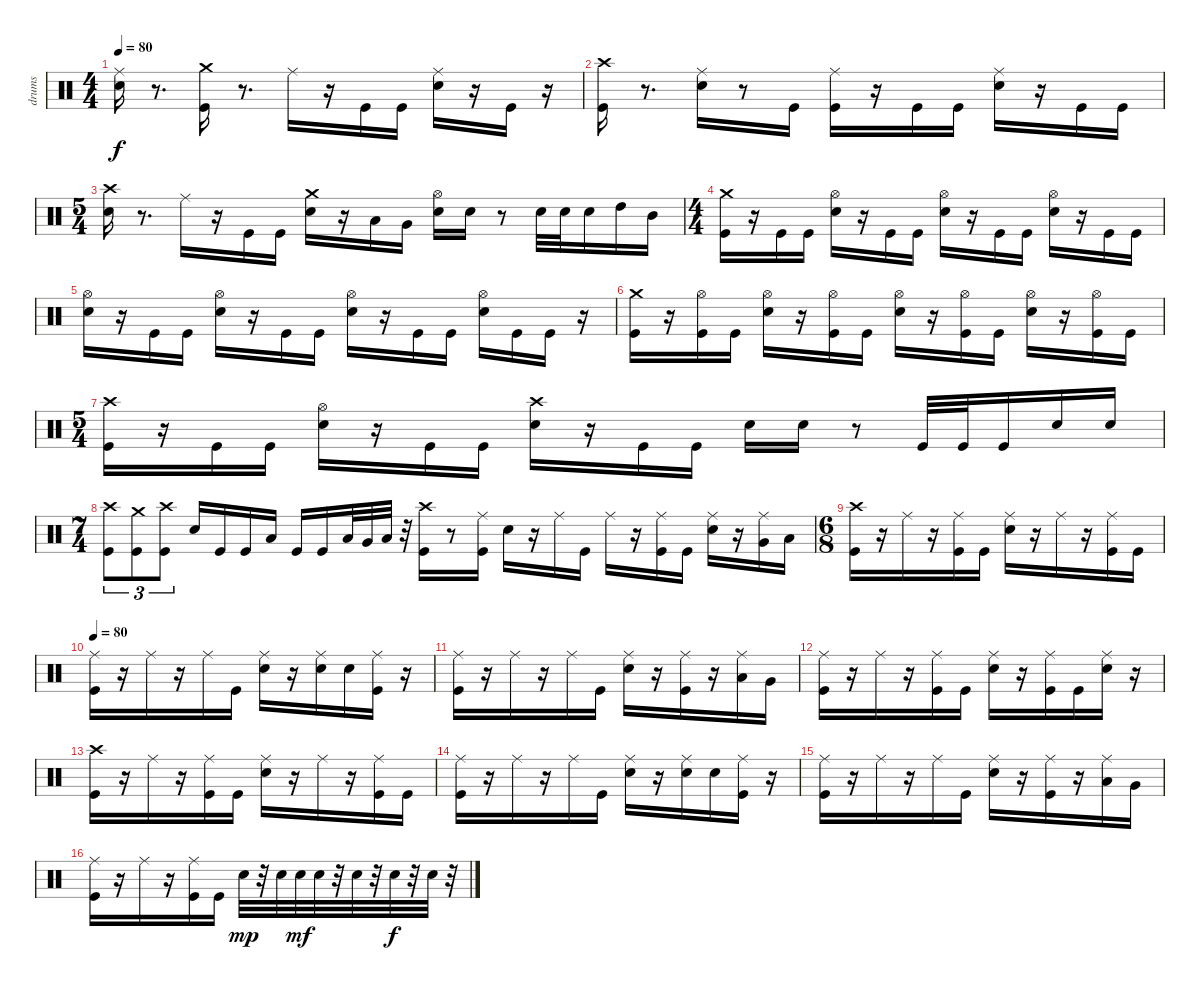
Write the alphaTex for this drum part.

\track ("drums" "drums") {instrument percussion}
\staff {score}
\articulation defaults
\ts (4 4)
\tempo 80
\clef neutral
\ks c
("Electric Snare (hit)" "Ride (middle)").16{dy f} r.8{d} ("Crash medium (hit)" "Kick (hit)").16 r.8{d} "Ride (middle)".16 r.16 "Kick (hit)".16 "Kick (hit)".16 ("Ride (middle)" "Electric Snare (hit)").16 r.16 "Kick (hit)".16 r.16 |
("Crash high (hit)" "Kick (hit)").16 r.8{d} ("Electric Snare (hit)" "Ride (middle)").16 r.8 "Kick (hit)".16 ("Kick (hit)" "Ride (middle)").16 r.16 "Kick (hit)".16 "Kick (hit)".16 ("Ride (middle)" "Electric Snare (hit)").16 r.16 "Kick (hit)".16 "Kick (hit)".16 |
\ts (5 4)
("Crash high (hit)" "Electric Snare (hit)").16 r.8{d} "Ride (middle)".16 r.16 "Kick (hit)".16 "Kick (hit)".16 ("Crash medium (hit)" "Electric Snare (hit)").16 r.16 "Low Tom (hit)".16 "Very Low Tom (hit)".16 ("Hi-Hat (open)" "Electric Snare (hit)").16 "Electric Snare (hit)".16 r.8 "Electric Snare (hit)".32 "Electric Snare (hit)".32 "Electric Snare (hit)".16 "High Tom (hit)".16 "Mid Tom (hit)".16 |
\ts (4 4)
("Crash medium (hit)" "Kick (hit)").16 r.16 "Kick (hit)".16 "Kick (hit)".16 ("Hi-Hat (open)" "Electric Snare (hit)").16 r.16 "Kick (hit)".16 "Kick (hit)".16 ("Hi-Hat (open)" "Snare (hit) 2").16 r.16 "Kick (hit)".16 "Kick (hit)".16 ("Hi-Hat (open)" "Snare (hit) 2").16 r.16 "Kick (hit)".16 "Kick (hit)".16 |
("Electric Snare (hit)" "Hi-Hat (open)").16 r.16 "Kick (hit)".16 "Kick (hit)".16 ("Hi-Hat (open)" "Electric Snare (hit)").16 r.16 "Kick (hit)".16 "Kick (hit)".16 ("Hi-Hat (open)" "Electric Snare (hit)").16 r.16 "Kick (hit)".16 "Kick (hit)".16 ("Hi-Hat (open)" "Electric Snare (hit)").16 "Kick (hit)".16 "Kick (hit)".16 r.16 |
("Kick (hit)" "Crash medium (hit)").16 r.16 ("Hi-Hat (open)" "Kick (hit)").16 "Kick (hit)".16 ("Hi-Hat (open)" "Electric Snare (hit)").16 r.16 ("Hi-Hat (open)" "Kick (hit)").16 "Kick (hit)".16 ("Hi-Hat (open)" "Electric Snare (hit)").16 r.16 ("Hi-Hat (open)" "Kick (hit)").16 "Kick (hit)".16 ("Hi-Hat (open)" "Electric Snare (hit)").16 r.16 ("Kick (hit)" "Hi-Hat (open)").16 "Kick (hit)".16 |
\ts (5 4)
("Crash high (hit)" "Kick (hit)").16 r.16 "Kick (hit)".16 "Kick (hit)".16 ("Hi-Hat (open)" "Snare (hit) 2").16 r.16 "Kick (hit)".16 "Kick (hit)".16 ("Snare (hit) 2" "Crash high (hit)").16 r.16 "Kick (hit)".16 "Kick (hit)".16 "Electric Snare (hit)".16 "Electric Snare (hit)".16 r.8 "Kick (hit)".32 "Kick (hit)".32 "Kick (hit)".16 "Electric Snare (hit)".16 "Electric Snare (hit)".16 |
\ts (7 4)
("Crash high (hit)" "Kick (hit)").8{tu (3 2)} ("Crash medium (hit)" "Kick (hit)").8{tu (3 2)} ("Crash high (hit)" "Kick (hit)").8{tu (3 2)} "Electric Snare (hit)".16 "Kick (hit)".16 "Kick (hit)".16 "Low Tom (hit)".16 "Kick (hit)".16 "Kick (hit)".16 "Low Tom (hit)".32 "Very Low Tom (hit)".32 "Low Floor Tom (hit)".32 r.32 ("Crash high (hit)" "Kick (hit)").16 r.8 ("Ride (middle)" "Kick (hit)").16 "Electric Snare (hit)".16 r.16 "Ride (middle)".16 "Kick (hit)".16 "Ride (middle)".16 r.16 ("Ride (middle)" "Kick (hit)").16 "Kick (hit)".16 ("Ride (middle)" "Electric Snare (hit)").16 r.16 ("Very Low Tom (hit)" "Ride (middle)").16 "Low Floor Tom (hit)".16 |
\ts (6 8)
("Kick (hit)" "Crash high (hit)").16 r.16 "Ride (middle)".16 r.16 ("Kick (hit)" "Ride (middle)").16 "Kick (hit)".16 ("Electric Snare (hit)" "Ride (middle)").16 r.16 "Ride (middle)".16 r.16 ("Kick (hit)" "Ride (middle)").16 "Kick (hit)".16 |
\tempo 80
("Ride (middle)" "Kick (hit)").16 r.16 "Ride (middle)".16 r.16 "Ride (middle)".16 "Kick (hit)".16 ("Ride (middle)" "Electric Snare (hit)").16 r.16 ("Electric Snare (hit)" "Ride (middle)").16 "Electric Snare (hit)".16 ("Kick (hit)" "Ride (middle)").16 r.16 |
("Ride (middle)" "Kick (hit)").16 r.16 "Ride (middle)".16 r.16 "Ride (middle)".16 "Kick (hit)".16 ("Electric Snare (hit)" "Ride (middle)").16 r.16 ("Kick (hit)" "Ride (middle)").16 r.16 ("Low Tom (hit)" "Ride (middle)").16 "Very Low Tom (hit)".16 |
("Ride (middle)" "Kick (hit)").16 r.16 "Ride (middle)".16 r.16 ("Kick (hit)" "Ride (middle)").16 "Kick (hit)".16 ("Ride (middle)" "Electric Snare (hit)").16 r.16 ("Ride (middle)" "Kick (hit)").16 "Kick (hit)".16 ("Ride (middle)" "Electric Snare (hit)").16 r.16 |
("Kick (hit)" "Crash high (hit)").16 r.16 "Ride (middle)".16 r.16 ("Kick (hit)" "Ride (middle)").16 "Kick (hit)".16 ("Electric Snare (hit)" "Ride (middle)").16 r.16 "Ride (middle)".16 r.16 ("Kick (hit)" "Ride (middle)").16 "Kick (hit)".16 |
("Ride (middle)" "Kick (hit)").16 r.16 "Ride (middle)".16 r.16 "Ride (middle)".16 "Kick (hit)".16 ("Ride (middle)" "Electric Snare (hit)").16 r.16 ("Ride (middle)" "Electric Snare (hit)").16 "Electric Snare (hit)".16 ("Kick (hit)" "Ride (middle)").16 r.16 |
("Ride (middle)" "Kick (hit)").16 r.16 "Ride (middle)".16 r.16 "Ride (middle)".16 "Kick (hit)".16 ("Electric Snare (hit)" "Ride (middle)").16 r.16 ("Kick (hit)" "Ride (middle)").16 r.16 ("Low Tom (hit)" "Ride (middle)").16 "Very Low Tom (hit)".16 |
("Ride (middle)" "Kick (hit)").16 r.16 "Ride (middle)".16 r.16 ("Ride (middle)" "Kick (hit)").16 "Kick (hit)".16 "Electric Snare (hit)".32{dy mp} r.32 "Electric Snare (hit)".32 "Electric Snare (hit)".32{dy mf} "Electric Snare (hit)".32 r.32 "Electric Snare (hit)".32 r.32 "Electric Snare (hit)".32{dy f} r.32 "Electric Snare (hit)".32 r.32
